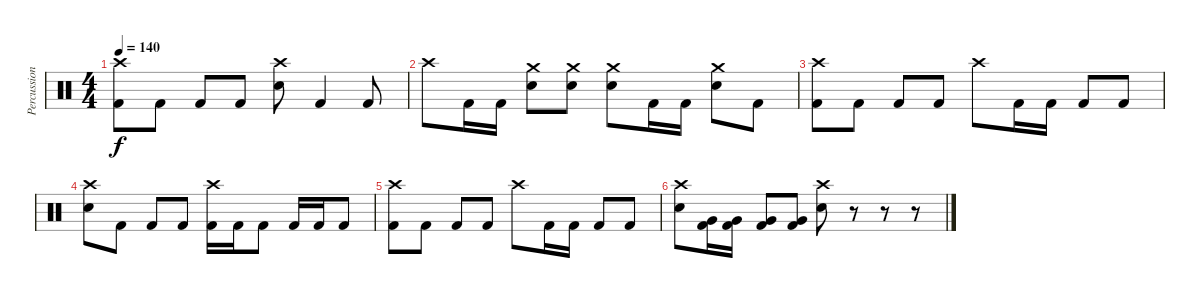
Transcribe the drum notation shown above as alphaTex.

\track ("Percussion" "Percussion") {instrument percussion}
\staff {score}
\articulation defaults
\ts (4 4)
\tempo 140
\clef neutral
\ks c
("Crash high (hit)" "Kick (hit) 2").8{dy f} "Kick (hit) 2".8 "Kick (hit) 2".8 "Kick (hit) 2".8 ("Crash high (hit)" "Electric Snare (hit)").8 "Kick (hit) 2".4 "Kick (hit) 2".8 |
"Crash high (hit)".8 "Kick (hit) 2".16 "Kick (hit) 2".16 ("Crash medium (hit)" "Electric Snare (hit)").8 ("Crash medium (hit)" "Electric Snare (hit)").8 ("Crash medium (hit)" "Electric Snare (hit)").8 "Kick (hit) 2".16 "Kick (hit) 2".16 ("Crash medium (hit)" "Electric Snare (hit)").8 "Kick (hit) 2".8 |
("Crash high (hit)" "Kick (hit) 2").8 "Kick (hit) 2".8 "Kick (hit) 2".8 "Kick (hit) 2".8 "Crash high (hit)".8 "Kick (hit) 2".16 "Kick (hit) 2".16 "Kick (hit) 2".8 "Kick (hit) 2".8 |
("Crash high (hit)" "Electric Snare (hit)").8 "Kick (hit) 2".8 "Kick (hit) 2".8 "Kick (hit) 2".8 ("Crash high (hit)" "Kick (hit) 2").16 "Kick (hit) 2".16 "Kick (hit) 2".8 "Kick (hit) 2".16 "Kick (hit) 2".16 "Kick (hit) 2".8 |
("Crash high (hit)" "Kick (hit) 2").8 "Kick (hit) 2".8 "Kick (hit) 2".8 "Kick (hit) 2".8 "Crash high (hit)".8 "Kick (hit) 2".16 "Kick (hit) 2".16 "Kick (hit) 2".8 "Kick (hit) 2".8 |
("Crash high (hit)" "Electric Snare (hit)").8 ("Very Low Tom (hit)" "Kick (hit) 2").16 ("Very Low Tom (hit)" "Kick (hit) 2").16 ("Very Low Tom (hit)" "Kick (hit) 2").8 ("Very Low Tom (hit)" "Kick (hit) 2").8 ("Crash high (hit)" "Electric Snare (hit)").8 r.8 r.8 r.8
